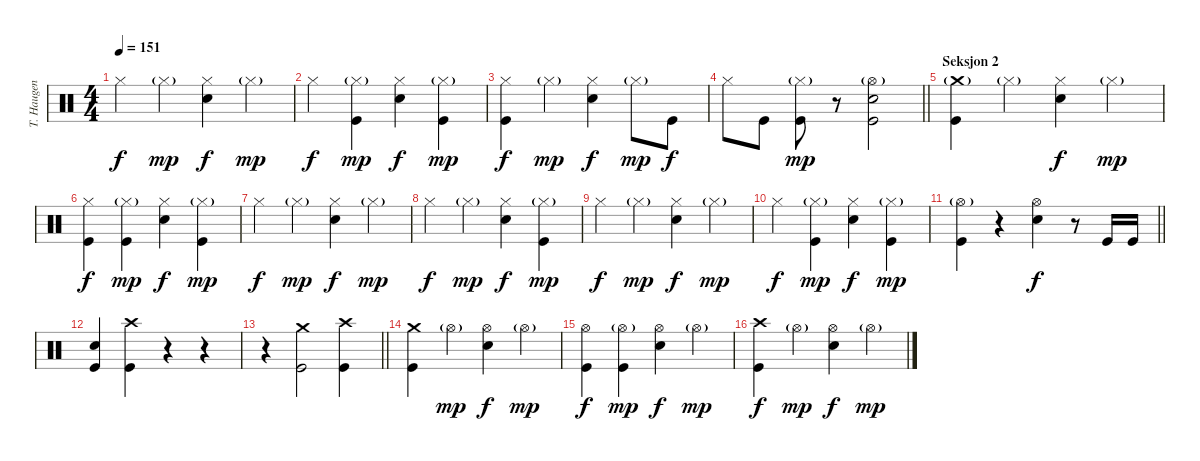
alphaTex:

\track ("T. Haugen" "T. Haugen") {instrument percussion}
\staff {score}
\articulation defaults
\ts (4 4)
\tempo 151
\clef neutral
\ks c "Hi-Hat (closed)".4{dy f} "Hi-Hat (closed)"{g}.4{dy mp}
("Hi-Hat (closed)" "Electric Snare (hit)").4{dy f} "Hi-Hat (closed)"{g}.4{dy mp} |
"Hi-Hat (closed)".4{dy f} ("Hi-Hat (closed)"{g} "Kick (hit)").4{dy mp} ("Hi-Hat (closed)" "Electric Snare (hit)").4{dy f} ("Hi-Hat (closed)"{g} "Kick (hit)").4{dy mp} |
("Hi-Hat (closed)" "Kick (hit)").4{dy f} "Hi-Hat (closed)"{g}.4{dy mp} ("Hi-Hat (closed)" "Electric Snare (hit)").4{dy f} "Hi-Hat (closed)"{g}.8{dy mp} "Kick (hit)".8{dy f} |
\barLineRight lightlight "Hi-Hat (closed)".8 "Kick (hit)".8
("Hi-Hat (closed)"{g} "Kick (hit)").8{dy mp} r.8 ("Hi-Hat (open)"{g} "Electric Snare (hit)" "Kick (hit)").2 |
\section ("" "Seksjon 2")
("Crash medium (hit)"{g} "Kick (hit)").4 "Hi-Hat (closed)"{g}.4 ("Hi-Hat (closed)" "Electric Snare (hit)").4{dy f} "Hi-Hat (closed)"{g}.4{dy mp} |
("Hi-Hat (closed)" "Kick (hit)").4{dy f} ("Hi-Hat (closed)"{g} "Kick (hit)").4{dy mp} ("Hi-Hat (closed)" "Electric Snare (hit)").4{dy f} ("Hi-Hat (closed)"{g} "Kick (hit)").4{dy mp} |
"Hi-Hat (closed)".4{dy f} "Hi-Hat (closed)"{g}.4{dy mp} ("Hi-Hat (closed)" "Electric Snare (hit)").4{dy f} "Hi-Hat (closed)"{g}.4{dy mp} |
"Hi-Hat (closed)".4{dy f} "Hi-Hat (closed)"{g}.4{dy mp} ("Hi-Hat (closed)" "Electric Snare (hit)").4{dy f} ("Hi-Hat (closed)"{g} "Kick (hit)").4{dy mp} |
"Hi-Hat (closed)".4{dy f} "Hi-Hat (closed)"{g}.4{dy mp} ("Hi-Hat (closed)" "Electric Snare (hit)").4{dy f} "Hi-Hat (closed)"{g}.4{dy mp} |
"Hi-Hat (closed)".4{dy f} ("Hi-Hat (closed)"{g} "Kick (hit)").4{dy mp} ("Hi-Hat (closed)" "Electric Snare (hit)").4{dy f} ("Hi-Hat (closed)"{g} "Kick (hit)").4{dy mp} |
\barLineRight lightlight
("Hi-Hat (open)"{g} "Kick (hit)").4 r.4 ("Hi-Hat (open)" "Electric Snare (hit)").4{dy f} r.8 "Kick (hit)".16 "Kick (hit)".16 |
\section ("" " ")
("Electric Snare (hit)" "Kick (hit)").4 ("Crash high (hit)" "Kick (hit)").4 r.4 r.4 |
\barLineRight lightlight
r.4 ("Crash medium (hit)" "Kick (hit)").2 ("Crash high (hit)" "Kick (hit)").4 |
\section ("" " ")
("Crash medium (hit)" "Kick (hit)").4 "Hi-Hat (open)"{g}.4{dy mp} ("Hi-Hat (open)" "Electric Snare (hit)").4{dy f} "Hi-Hat (open)"{g}.4{dy mp} |
("Hi-Hat (open)" "Kick (hit)").4{dy f} ("Hi-Hat (open)"{g} "Kick (hit)").4{dy mp} ("Hi-Hat (open)" "Electric Snare (hit)").4{dy f} "Hi-Hat (open)"{g}.4{dy mp} |
("Crash high (hit)" "Kick (hit)").4{dy f} "Hi-Hat (open)"{g}.4{dy mp} ("Hi-Hat (open)" "Electric Snare (hit)").4{dy f} "Hi-Hat (open)"{g}.4{dy mp}
